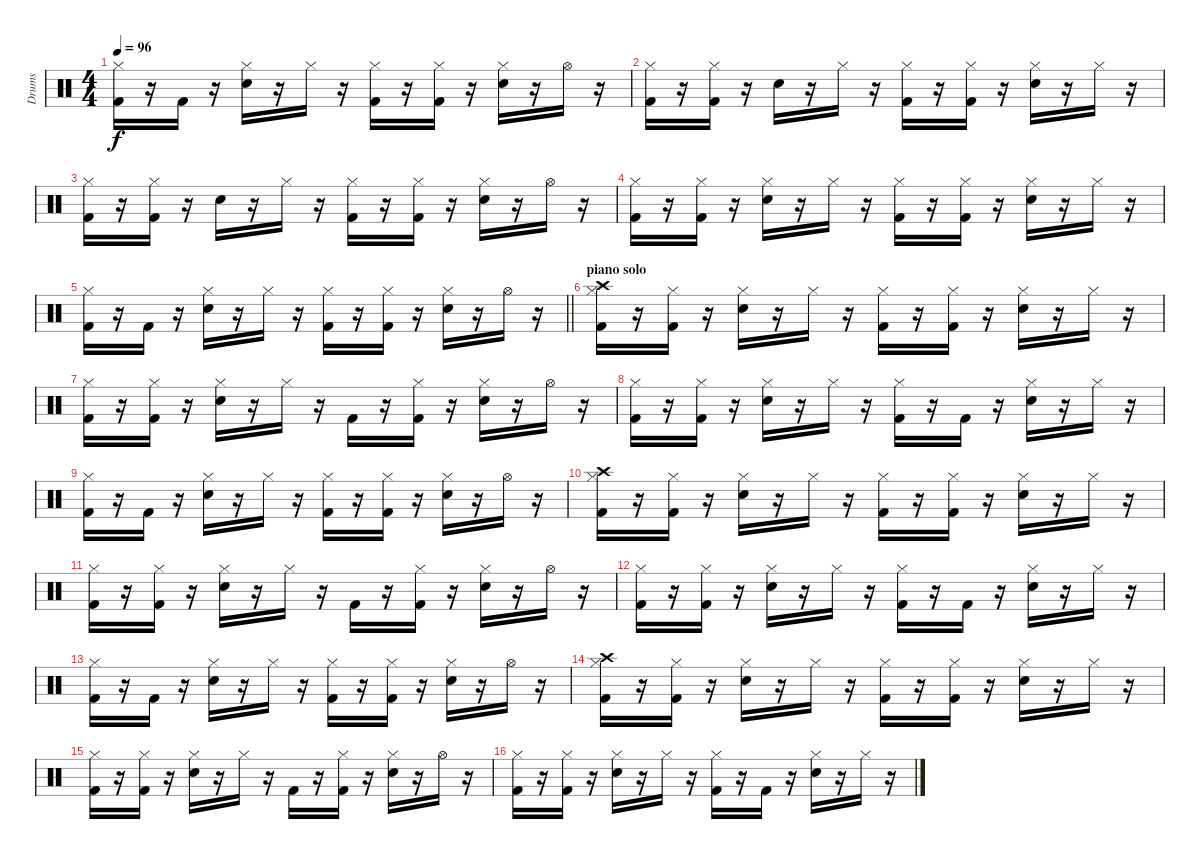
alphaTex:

\track ("Drums" "Drums") {instrument percussion}
\staff {score}
\articulation defaults
\ts (4 4)
\tempo 96
\clef neutral
\ks c
("Kick (hit) 2" "Hi-Hat (closed)").16{dy f} r.16 "Kick (hit) 2".16 r.16 ("Snare (hit) 2" "Hi-Hat (closed)").16 r.16 "Hi-Hat (closed)".16 r.16 ("Kick (hit) 2" "Hi-Hat (closed)").16 r.16 ("Kick (hit) 2" "Hi-Hat (closed)").16 r.16 ("Snare (hit) 2" "Hi-Hat (closed)").16 r.16 "Hi-Hat (open)".16 r.16 |
("Kick (hit) 2" "Hi-Hat (closed)").16 r.16 ("Kick (hit) 2" "Hi-Hat (closed)").16 r.16 "Snare (hit) 2".16 r.16 "Hi-Hat (closed)".16 r.16 ("Kick (hit) 2" "Hi-Hat (closed)").16 r.16 ("Kick (hit) 2" "Hi-Hat (closed)").16 r.16 ("Snare (hit) 2" "Hi-Hat (closed)").16 r.16 "Hi-Hat (closed)".16 r.16 |
("Kick (hit) 2" "Hi-Hat (closed)").16 r.16 ("Kick (hit) 2" "Hi-Hat (closed)").16 r.16 "Snare (hit) 2".16 r.16 "Hi-Hat (closed)".16 r.16 ("Kick (hit) 2" "Hi-Hat (closed)").16 r.16 ("Kick (hit) 2" "Hi-Hat (closed)").16 r.16 ("Snare (hit) 2" "Hi-Hat (closed)").16 r.16 "Hi-Hat (open)".16 r.16 |
("Kick (hit) 2" "Hi-Hat (closed)").16 r.16 ("Kick (hit) 2" "Hi-Hat (closed)").16 r.16 ("Snare (hit) 2" "Hi-Hat (closed)").16 r.16 "Hi-Hat (closed)".16 r.16 ("Kick (hit) 2" "Hi-Hat (closed)").16 r.16 ("Kick (hit) 2" "Hi-Hat (closed)").16 r.16 ("Snare (hit) 2" "Hi-Hat (closed)").16 r.16 "Hi-Hat (closed)".16 r.16 |
\barLineRight lightlight
("Kick (hit) 2" "Hi-Hat (closed)").16 r.16 "Kick (hit) 2".16 r.16 ("Snare (hit) 2" "Hi-Hat (closed)").16 r.16 "Hi-Hat (closed)".16 r.16 ("Kick (hit) 2" "Hi-Hat (closed)").16 r.16 ("Kick (hit) 2" "Hi-Hat (closed)").16 r.16 ("Snare (hit) 2" "Hi-Hat (closed)").16 r.16 "Hi-Hat (open)".16 r.16 |
\section ("" "piano solo")
("Kick (hit) 2" "Hi-Hat (closed)" "Crash high (hit)").16 r.16 ("Kick (hit) 2" "Hi-Hat (closed)").16 r.16 ("Snare (hit) 2" "Hi-Hat (closed)").16 r.16 "Hi-Hat (closed)".16 r.16 ("Kick (hit) 2" "Hi-Hat (closed)").16 r.16 ("Kick (hit) 2" "Hi-Hat (closed)").16 r.16 ("Snare (hit) 2" "Hi-Hat (closed)").16 r.16 "Hi-Hat (closed)".16 r.16 |
("Kick (hit) 2" "Hi-Hat (closed)").16 r.16 ("Kick (hit) 2" "Hi-Hat (closed)").16 r.16 ("Snare (hit) 2" "Hi-Hat (closed)").16 r.16 "Hi-Hat (closed)".16 r.16 "Kick (hit) 2".16 r.16 ("Kick (hit) 2" "Hi-Hat (closed)").16 r.16 ("Snare (hit) 2" "Hi-Hat (closed)").16 r.16 "Hi-Hat (open)".16 r.16 |
("Kick (hit) 2" "Hi-Hat (closed)").16 r.16 ("Kick (hit) 2" "Hi-Hat (closed)").16 r.16 ("Snare (hit) 2" "Hi-Hat (closed)").16 r.16 "Hi-Hat (closed)".16 r.16 ("Kick (hit) 2" "Hi-Hat (closed)").16 r.16 "Kick (hit) 2".16 r.16 ("Snare (hit) 2" "Hi-Hat (closed)").16 r.16 "Hi-Hat (closed)".16 r.16 |
("Kick (hit) 2" "Hi-Hat (closed)").16 r.16 "Kick (hit) 2".16 r.16 ("Snare (hit) 2" "Hi-Hat (closed)").16 r.16 "Hi-Hat (closed)".16 r.16 ("Kick (hit) 2" "Hi-Hat (closed)").16 r.16 ("Kick (hit) 2" "Hi-Hat (closed)").16 r.16 ("Snare (hit) 2" "Hi-Hat (closed)").16 r.16 "Hi-Hat (open)".16 r.16 |
("Kick (hit) 2" "Hi-Hat (closed)" "Crash high (hit)").16 r.16 ("Kick (hit) 2" "Hi-Hat (closed)").16 r.16 ("Snare (hit) 2" "Hi-Hat (closed)").16 r.16 "Hi-Hat (closed)".16 r.16 ("Kick (hit) 2" "Hi-Hat (closed)").16 r.16 ("Kick (hit) 2" "Hi-Hat (closed)").16 r.16 ("Snare (hit) 2" "Hi-Hat (closed)").16 r.16 "Hi-Hat (closed)".16 r.16 |
("Kick (hit) 2" "Hi-Hat (closed)").16 r.16 ("Kick (hit) 2" "Hi-Hat (closed)").16 r.16 ("Snare (hit) 2" "Hi-Hat (closed)").16 r.16 "Hi-Hat (closed)".16 r.16 "Kick (hit) 2".16 r.16 ("Kick (hit) 2" "Hi-Hat (closed)").16 r.16 ("Snare (hit) 2" "Hi-Hat (closed)").16 r.16 "Hi-Hat (open)".16 r.16 |
("Kick (hit) 2" "Hi-Hat (closed)").16 r.16 ("Kick (hit) 2" "Hi-Hat (closed)").16 r.16 ("Snare (hit) 2" "Hi-Hat (closed)").16 r.16 "Hi-Hat (closed)".16 r.16 ("Kick (hit) 2" "Hi-Hat (closed)").16 r.16 "Kick (hit) 2".16 r.16 ("Snare (hit) 2" "Hi-Hat (closed)").16 r.16 "Hi-Hat (closed)".16 r.16 |
("Kick (hit) 2" "Hi-Hat (closed)").16 r.16 "Kick (hit) 2".16 r.16 ("Snare (hit) 2" "Hi-Hat (closed)").16 r.16 "Hi-Hat (closed)".16 r.16 ("Kick (hit) 2" "Hi-Hat (closed)").16 r.16 ("Kick (hit) 2" "Hi-Hat (closed)").16 r.16 ("Snare (hit) 2" "Hi-Hat (closed)").16 r.16 "Hi-Hat (open)".16 r.16 |
("Kick (hit) 2" "Hi-Hat (closed)" "Crash high (hit)").16 r.16 ("Kick (hit) 2" "Hi-Hat (closed)").16 r.16 ("Snare (hit) 2" "Hi-Hat (closed)").16 r.16 "Hi-Hat (closed)".16 r.16 ("Kick (hit) 2" "Hi-Hat (closed)").16 r.16 ("Kick (hit) 2" "Hi-Hat (closed)").16 r.16 ("Snare (hit) 2" "Hi-Hat (closed)").16 r.16 "Hi-Hat (closed)".16 r.16 |
("Kick (hit) 2" "Hi-Hat (closed)").16 r.16 ("Kick (hit) 2" "Hi-Hat (closed)").16 r.16 ("Snare (hit) 2" "Hi-Hat (closed)").16 r.16 "Hi-Hat (closed)".16 r.16 "Kick (hit) 2".16 r.16 ("Kick (hit) 2" "Hi-Hat (closed)").16 r.16 ("Snare (hit) 2" "Hi-Hat (closed)").16 r.16 "Hi-Hat (open)".16 r.16 |
("Kick (hit) 2" "Hi-Hat (closed)").16 r.16 ("Kick (hit) 2" "Hi-Hat (closed)").16 r.16 ("Snare (hit) 2" "Hi-Hat (closed)").16 r.16 "Hi-Hat (closed)".16 r.16 ("Kick (hit) 2" "Hi-Hat (closed)").16 r.16 "Kick (hit) 2".16 r.16 ("Snare (hit) 2" "Hi-Hat (closed)").16 r.16 "Hi-Hat (closed)".16 r.16
